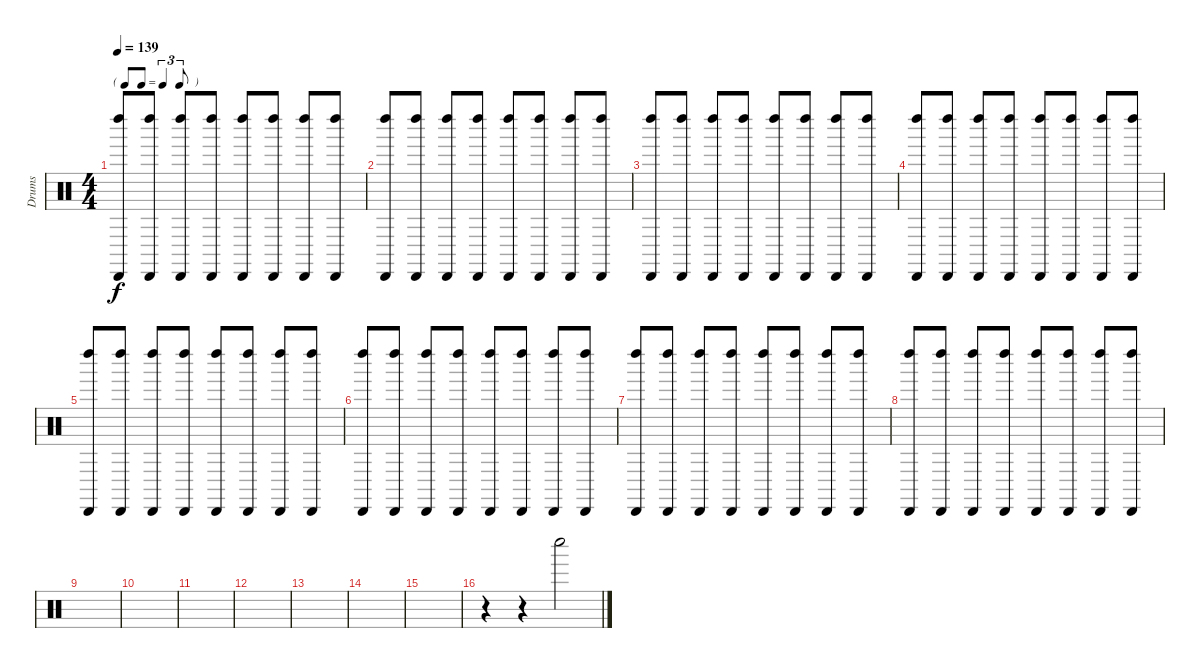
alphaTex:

\track ("Drums" "Drums") {instrument percussion}
\staff {score}
\articulation defaults
\ts (4 4)
\tf triplet8th
\tempo 139
\clef neutral
\ks c
("Cabasa (hit)" "Left Maraca (hit)").8{dy f} ("Cabasa (hit)" "Left Maraca (hit)").8 ("Cabasa (hit)" "Left Maraca (hit)").8 ("Cabasa (hit)" "Left Maraca (hit)").8 ("Cabasa (hit)" "Left Maraca (hit)").8 ("Cabasa (hit)" "Left Maraca (hit)").8 ("Cabasa (hit)" "Left Maraca (hit)").8 ("Cabasa (hit)" "Left Maraca (hit)").8 |
("Cabasa (hit)" "Left Maraca (hit)").8 ("Cabasa (hit)" "Left Maraca (hit)").8 ("Cabasa (hit)" "Left Maraca (hit)").8 ("Cabasa (hit)" "Left Maraca (hit)").8 ("Cabasa (hit)" "Left Maraca (hit)").8 ("Cabasa (hit)" "Left Maraca (hit)").8 ("Cabasa (hit)" "Left Maraca (hit)").8 ("Cabasa (hit)" "Left Maraca (hit)").8 |
("Cabasa (hit)" "Left Maraca (hit)").8 ("Cabasa (hit)" "Left Maraca (hit)").8 ("Cabasa (hit)" "Left Maraca (hit)").8 ("Cabasa (hit)" "Left Maraca (hit)").8 ("Cabasa (hit)" "Left Maraca (hit)").8 ("Cabasa (hit)" "Left Maraca (hit)").8 ("Cabasa (hit)" "Left Maraca (hit)").8 ("Cabasa (hit)" "Left Maraca (hit)").8 |
("Cabasa (hit)" "Left Maraca (hit)").8 ("Cabasa (hit)" "Left Maraca (hit)").8 ("Cabasa (hit)" "Left Maraca (hit)").8 ("Cabasa (hit)" "Left Maraca (hit)").8 ("Cabasa (hit)" "Left Maraca (hit)").8 ("Cabasa (hit)" "Left Maraca (hit)").8 ("Cabasa (hit)" "Left Maraca (hit)").8 ("Cabasa (hit)" "Left Maraca (hit)").8 |
("Cabasa (hit)" "Left Maraca (hit)").8 ("Cabasa (hit)" "Left Maraca (hit)").8 ("Cabasa (hit)" "Left Maraca (hit)").8 ("Cabasa (hit)" "Left Maraca (hit)").8 ("Cabasa (hit)" "Left Maraca (hit)").8 ("Cabasa (hit)" "Left Maraca (hit)").8 ("Cabasa (hit)" "Left Maraca (hit)").8 ("Cabasa (hit)" "Left Maraca (hit)").8 |
("Cabasa (hit)" "Left Maraca (hit)").8 ("Cabasa (hit)" "Left Maraca (hit)").8 ("Cabasa (hit)" "Left Maraca (hit)").8 ("Cabasa (hit)" "Left Maraca (hit)").8 ("Cabasa (hit)" "Left Maraca (hit)").8 ("Cabasa (hit)" "Left Maraca (hit)").8 ("Cabasa (hit)" "Left Maraca (hit)").8 ("Cabasa (hit)" "Left Maraca (hit)").8 |
("Cabasa (hit)" "Left Maraca (hit)").8 ("Cabasa (hit)" "Left Maraca (hit)").8 ("Cabasa (hit)" "Left Maraca (hit)").8 ("Cabasa (hit)" "Left Maraca (hit)").8 ("Cabasa (hit)" "Left Maraca (hit)").8 ("Cabasa (hit)" "Left Maraca (hit)").8 ("Cabasa (hit)" "Left Maraca (hit)").8 ("Cabasa (hit)" "Left Maraca (hit)").8 |
("Cabasa (hit)" "Left Maraca (hit)").8 ("Cabasa (hit)" "Left Maraca (hit)").8 ("Cabasa (hit)" "Left Maraca (hit)").8 ("Cabasa (hit)" "Left Maraca (hit)").8 ("Cabasa (hit)" "Left Maraca (hit)").8 ("Cabasa (hit)" "Left Maraca (hit)").8 ("Cabasa (hit)" "Left Maraca (hit)").8 ("Cabasa (hit)" "Left Maraca (hit)").8 |
|
|
|
|
|
|
|
r.4 r.4 "Whistle low (hit)".2
